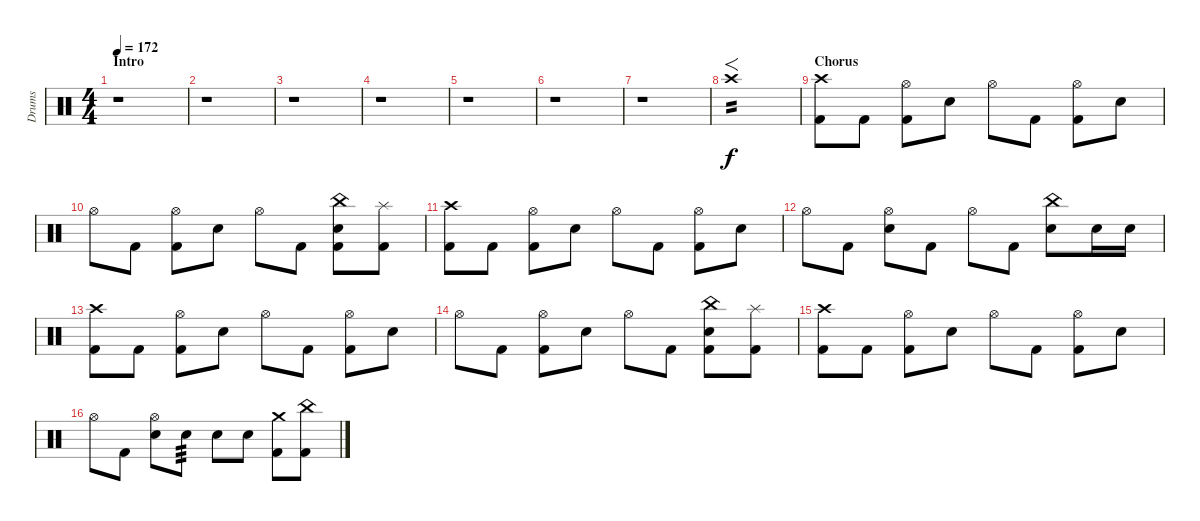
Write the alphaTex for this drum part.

\track ("Drums" "Drums") {instrument percussion}
\staff {score}
\articulation defaults
\ts (4 4)
\section ("" "Intro")
\tempo 172
\clef neutral
\ks c
r.1{dy f} |
r.1 |
r.1 |
r.1 |
r.1 |
r.1 |
r.1 |
"Crash high (hit)".1{f tp 2} |
\section ("" "Chorus")
("Crash high (hit)" "Kick (hit) 2").8 "Kick (hit) 2".8 ("Hi-Hat (open)" "Kick (hit) 2").8 "Electric Snare (hit)".8 "Hi-Hat (open)".8 "Kick (hit) 2".8 ("Hi-Hat (open)" "Kick (hit) 2").8 "Electric Snare (hit)".8 |
"Hi-Hat (open)".8 "Kick (hit) 2".8 ("Hi-Hat (open)" "Kick (hit) 2").8 "Electric Snare (hit)".8 "Hi-Hat (open)".8 "Kick (hit) 2".8 ("China (hit)" "Electric Snare (hit)" "Kick (hit) 2").8 ("Splash (hit)" "Kick (hit) 2").8 |
("Crash high (hit)" "Kick (hit) 2").8 "Kick (hit) 2".8 ("Hi-Hat (open)" "Kick (hit) 2").8 "Electric Snare (hit)".8 "Hi-Hat (open)".8 "Kick (hit) 2".8 ("Hi-Hat (open)" "Kick (hit) 2").8 "Electric Snare (hit)".8 |
"Hi-Hat (open)".8 "Kick (hit) 2".8 ("Hi-Hat (open)" "Electric Snare (hit)").8 "Kick (hit) 2".8 "Hi-Hat (open)".8 "Kick (hit) 2".8 ("China (hit)" "Electric Snare (hit)").8 "Electric Snare (hit)".16 "Electric Snare (hit)".16 |
("Crash high (hit)" "Kick (hit) 2").8 "Kick (hit) 2".8 ("Hi-Hat (open)" "Kick (hit) 2").8 "Electric Snare (hit)".8 "Hi-Hat (open)".8 "Kick (hit) 2".8 ("Hi-Hat (open)" "Kick (hit) 2").8 "Electric Snare (hit)".8 |
"Hi-Hat (open)".8 "Kick (hit) 2".8 ("Hi-Hat (open)" "Kick (hit) 2").8 "Electric Snare (hit)".8 "Hi-Hat (open)".8 "Kick (hit) 2".8 ("China (hit)" "Electric Snare (hit)" "Kick (hit) 2").8 ("Splash (hit)" "Kick (hit) 2").8 |
("Crash high (hit)" "Kick (hit) 2").8 "Kick (hit) 2".8 ("Hi-Hat (open)" "Kick (hit) 2").8 "Electric Snare (hit)".8 "Hi-Hat (open)".8 "Kick (hit) 2".8 ("Hi-Hat (open)" "Kick (hit) 2").8 "Electric Snare (hit)".8 |
"Hi-Hat (open)".8 "Kick (hit) 2".8 ("Hi-Hat (open)" "Electric Snare (hit)").8 "Electric Snare (hit)".8{tp 3} "Electric Snare (hit)".8 "Electric Snare (hit)".8 ("Crash medium (hit)" "Kick (hit) 2").8 ("China (hit)" "Kick (hit) 2").8
